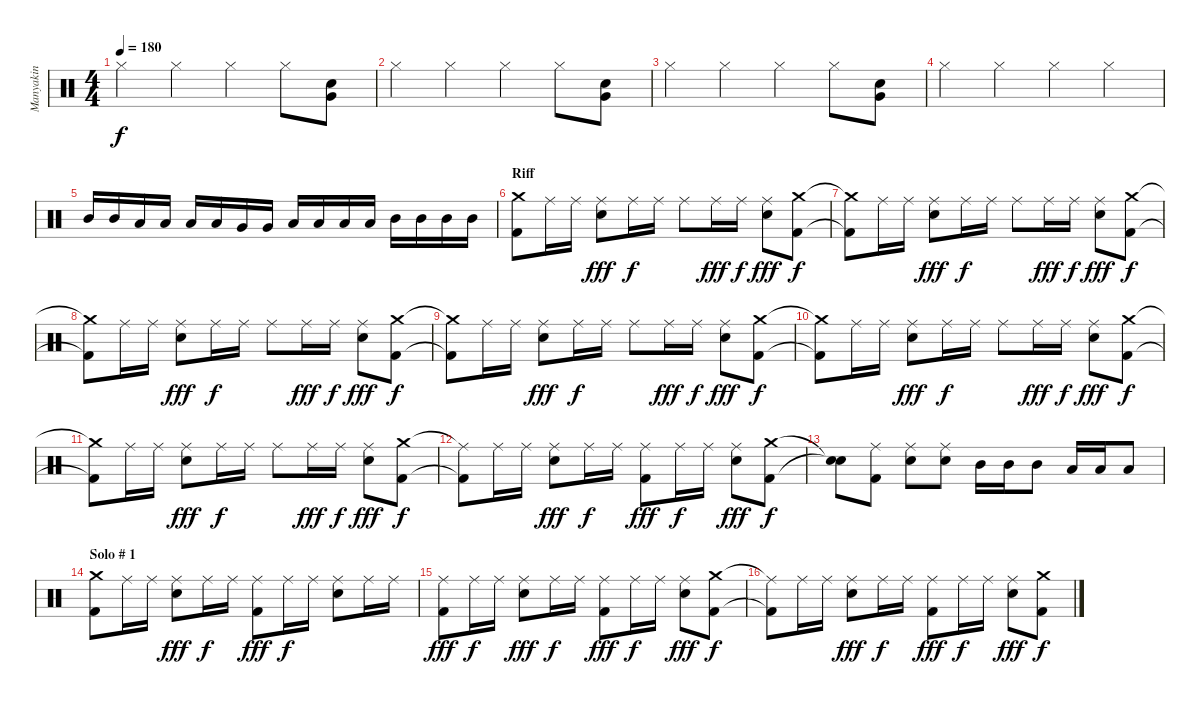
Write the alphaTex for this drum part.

\track ("Manyakin" "Manyakin") {instrument percussion}
\staff {score}
\articulation defaults
\ts (4 4)
\tempo 180
\clef neutral
\ks c "Hi-Hat (closed)".4{dy f} "Hi-Hat (closed)".4 "Hi-Hat (closed)".4 "Hi-Hat (closed)".8
("Snare (hit) 2" "Very Low Tom (hit)").8 |
"Hi-Hat (closed)".4 "Hi-Hat (closed)".4 "Hi-Hat (closed)".4 "Hi-Hat (closed)".8 ("Snare (hit) 2" "Very Low Tom (hit)").8 |
"Hi-Hat (closed)".4 "Hi-Hat (closed)".4 "Hi-Hat (closed)".4 "Hi-Hat (closed)".8 ("Snare (hit) 2" "Very Low Tom (hit)").8 |
"Hi-Hat (closed)".4 "Hi-Hat (closed)".4 "Hi-Hat (closed)".4 "Hi-Hat (closed)".4 |
"Mid Tom (hit)".16 "Mid Tom (hit)".16 "Low Tom (hit)".16 "Low Tom (hit)".16 "Low Tom (hit)".16 "Low Tom (hit)".16 "Very Low Tom (hit)".16 "Very Low Tom (hit)".16 "Low Tom (hit)".16 "Low Tom (hit)".16 "Low Tom (hit)".16 "Low Tom (hit)".16 "Mid Tom (hit)".16 "Mid Tom (hit)".16 "Mid Tom (hit)".16 "Mid Tom (hit)".16 |
\section ("" "Riff")
("Kick (hit) 2" "Crash medium (hit)").8 "Ride (middle)".16 "Ride (middle)".16 ("Snare (hit) 2" "Ride (middle)").8{dy fff} "Ride (middle)".16{dy f} "Ride (middle)".16 "Ride (middle)".8 "Ride (middle)".16{dy fff} "Ride (middle)".16{dy f} ("Snare (hit) 2" "Ride (middle)").8{dy fff} ("Kick (hit) 2" "Crash medium (hit)").8{dy f} |
("Kick (hit) 2"{t} "Crash medium (hit)"{t}).8 "Ride (middle)".16 "Ride (middle)".16 ("Snare (hit) 2" "Ride (middle)").8{dy fff} "Ride (middle)".16{dy f} "Ride (middle)".16 "Ride (middle)".8 "Ride (middle)".16{dy fff} "Ride (middle)".16{dy f} ("Snare (hit) 2" "Ride (middle)").8{dy fff} ("Kick (hit) 2" "Crash medium (hit)").8{dy f} |
("Kick (hit) 2"{t} "Crash medium (hit)"{t}).8 "Ride (middle)".16 "Ride (middle)".16 ("Snare (hit) 2" "Ride (middle)").8{dy fff} "Ride (middle)".16{dy f} "Ride (middle)".16 "Ride (middle)".8 "Ride (middle)".16{dy fff} "Ride (middle)".16{dy f} ("Snare (hit) 2" "Ride (middle)").8{dy fff} ("Kick (hit) 2" "Crash medium (hit)").8{dy f} |
("Kick (hit) 2"{t} "Crash medium (hit)"{t}).8 "Ride (middle)".16 "Ride (middle)".16 ("Snare (hit) 2" "Ride (middle)").8{dy fff} "Ride (middle)".16{dy f} "Ride (middle)".16 "Ride (middle)".8 "Ride (middle)".16{dy fff} "Ride (middle)".16{dy f} ("Snare (hit) 2" "Ride (middle)").8{dy fff} ("Kick (hit) 2" "Crash medium (hit)").8{dy f} |
("Kick (hit) 2"{t} "Crash medium (hit)"{t}).8 "Ride (middle)".16 "Ride (middle)".16 ("Snare (hit) 2" "Ride (middle)").8{dy fff} "Ride (middle)".16{dy f} "Ride (middle)".16 "Ride (middle)".8 "Ride (middle)".16{dy fff} "Ride (middle)".16{dy f} ("Snare (hit) 2" "Ride (middle)").8{dy fff} ("Kick (hit) 2" "Crash medium (hit)").8{dy f} |
("Kick (hit) 2"{t} "Crash medium (hit)"{t}).8 "Ride (middle)".16 "Ride (middle)".16 ("Snare (hit) 2" "Ride (middle)").8{dy fff} "Ride (middle)".16{dy f} "Ride (middle)".16 "Ride (middle)".8 "Ride (middle)".16{dy fff} "Ride (middle)".16{dy f} ("Snare (hit) 2" "Ride (middle)").8{dy fff} ("Kick (hit) 2" "Crash medium (hit)").8{dy f} |
("Kick (hit) 2"{t} "Ride (middle)"{t}).8 "Ride (middle)".16 "Ride (middle)".16 ("Snare (hit) 2" "Ride (middle)").8{dy fff} "Ride (middle)".16{dy f} "Ride (middle)".16 ("Kick (hit) 2" "Ride (middle)").8{dy fff} "Ride (middle)".16{dy f} "Ride (middle)".16 ("Snare (hit) 2" "Ride (middle)").8{dy fff} ("Kick (hit) 2" "Crash medium (hit)").8{dy f} |
("Snare (hit)"{t} "Snare (hit)"{t}).8 ("Kick (hit) 2" "Ride (middle)").8 ("Snare (hit) 2" "Ride (middle)").8 ("Snare (hit) 2" "Ride (middle)").8 "Mid Tom (hit)".16 "Mid Tom (hit)".16 "Mid Tom (hit)".8 "Low Tom (hit)".16 "Low Tom (hit)".16 "Low Tom (hit)".8 |
\section ("" "Solo # 1")
("Kick (hit) 2" "Crash medium (hit)").8 "Ride (middle)".16 "Ride (middle)".16 ("Snare (hit) 2" "Ride (middle)").8{dy fff} "Ride (middle)".16{dy f} "Ride (middle)".16 ("Kick (hit) 2" "Ride (middle)").8{dy fff} "Ride (middle)".16{dy f} "Ride (middle)".16 ("Ride (middle)" "Snare (hit) 2").8 "Ride (middle)".16 "Ride (middle)".16 |
("Kick (hit) 2" "Ride (middle)").8{dy fff} "Ride (middle)".16{dy f} "Ride (middle)".16 ("Snare (hit) 2" "Ride (middle)").8{dy fff} "Ride (middle)".16{dy f} "Ride (middle)".16 ("Kick (hit) 2" "Ride (middle)").8{dy fff} "Ride (middle)".16{dy f} "Ride (middle)".16 ("Snare (hit) 2" "Ride (middle)").8{dy fff} ("Kick (hit) 2" "Crash medium (hit)").8{dy f} |
("Kick (hit) 2"{t} "Ride (middle)"{t}).8 "Ride (middle)".16 "Ride (middle)".16 ("Snare (hit) 2" "Ride (middle)").8{dy fff} "Ride (middle)".16{dy f} "Ride (middle)".16 ("Kick (hit) 2" "Ride (middle)").8{dy fff} "Ride (middle)".16{dy f} "Ride (middle)".16 ("Snare (hit) 2" "Ride (middle)").8{dy fff} ("Kick (hit) 2" "Crash medium (hit)").8{dy f}
